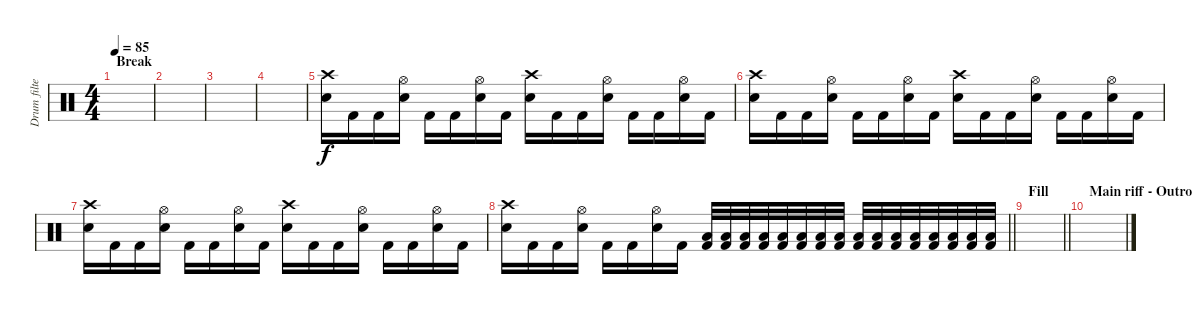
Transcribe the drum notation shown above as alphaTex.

\track ("Drum filter" "Drum filte") {instrument percussion}
\staff {score}
\articulation defaults
\ts (4 4)
\section ("" "Break")
\tempo 85
\clef neutral
\ks c
|
|
|
|
("Crash high (hit)" "Snare (hit) 2").16{volume 13} "Kick (hit) 2".16 "Kick (hit) 2".16 ("Hi-Hat (open)" "Snare (hit) 2").16 "Kick (hit) 2".16 "Kick (hit) 2".16 ("Hi-Hat (open)" "Snare (hit) 2").16 "Kick (hit) 2".16 ("Crash high (hit)" "Snare (hit) 2").16 "Kick (hit) 2".16 "Kick (hit) 2".16 ("Hi-Hat (open)" "Snare (hit) 2").16 "Kick (hit) 2".16 "Kick (hit) 2".16 ("Hi-Hat (open)" "Snare (hit) 2").16 "Kick (hit) 2".16 |
("Crash high (hit)" "Snare (hit) 2").16 "Kick (hit) 2".16 "Kick (hit) 2".16 ("Hi-Hat (open)" "Snare (hit) 2").16 "Kick (hit) 2".16 "Kick (hit) 2".16 ("Hi-Hat (open)" "Snare (hit) 2").16 "Kick (hit) 2".16 ("Crash high (hit)" "Snare (hit) 2").16 "Kick (hit) 2".16 "Kick (hit) 2".16 ("Hi-Hat (open)" "Snare (hit) 2").16 "Kick (hit) 2".16 "Kick (hit) 2".16 ("Hi-Hat (open)" "Snare (hit) 2").16 "Kick (hit) 2".16 |
("Crash high (hit)" "Snare (hit) 2").16 "Kick (hit) 2".16 "Kick (hit) 2".16 ("Hi-Hat (open)" "Snare (hit) 2").16 "Kick (hit) 2".16 "Kick (hit) 2".16 ("Hi-Hat (open)" "Snare (hit) 2").16 "Kick (hit) 2".16 ("Crash high (hit)" "Snare (hit) 2").16 "Kick (hit) 2".16 "Kick (hit) 2".16 ("Hi-Hat (open)" "Snare (hit) 2").16 "Kick (hit) 2".16 "Kick (hit) 2".16 ("Hi-Hat (open)" "Snare (hit) 2").16 "Kick (hit) 2".16 |
\barLineRight lightlight
("Crash high (hit)" "Snare (hit) 2").16 "Kick (hit) 2".16 "Kick (hit) 2".16 ("Hi-Hat (open)" "Snare (hit) 2").16 "Kick (hit) 2".16 "Kick (hit) 2".16 ("Hi-Hat (open)" "Snare (hit) 2").16 "Kick (hit) 2".16 ("Low Tom (hit)" "Kick (hit) 2").32 ("Low Tom (hit)" "Kick (hit) 2").32 ("Low Tom (hit)" "Kick (hit) 2").32 ("Low Tom (hit)" "Kick (hit) 2").32 ("Low Tom (hit)" "Kick (hit) 2").32 ("Low Tom (hit)" "Kick (hit) 2").32 ("Low Tom (hit)" "Kick (hit) 2").32 ("Low Tom (hit)" "Kick (hit) 2").32 ("Low Tom (hit)" "Kick (hit) 2").32 ("Low Tom (hit)" "Kick (hit) 2").32 ("Low Tom (hit)" "Kick (hit) 2").32 ("Low Tom (hit)" "Kick (hit) 2").32 ("Low Tom (hit)" "Kick (hit) 2").32 ("Low Tom (hit)" "Kick (hit) 2").32 ("Low Tom (hit)" "Kick (hit) 2").32 ("Low Tom (hit)" "Kick (hit) 2").32 |
\section ("" "Fill")
\barLineRight lightlight
|
\section ("" "Main riff - Outro")
